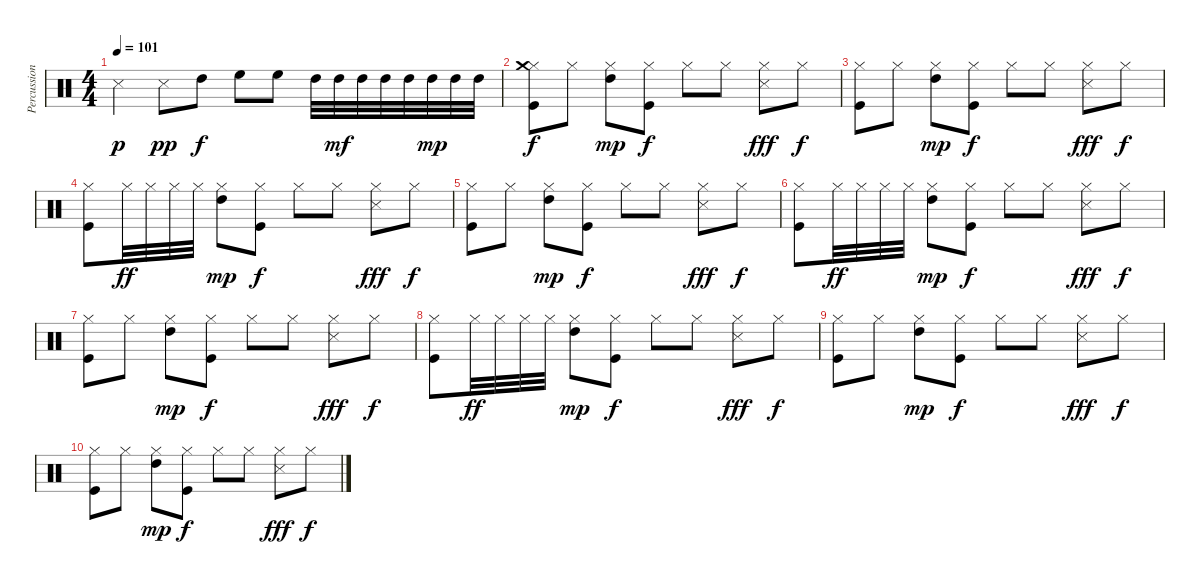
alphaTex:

\track ("Percussion" "Percussion") {instrument percussion}
\staff {score}
\articulation defaults
\ts (4 4)
\tempo 101
\clef neutral
\ks c "Snare (side stick) 3".4{dy p} "Snare (side stick) 3".8{dy pp} "High Tom (hit)".8{dy f} "High Floor Tom (hit)".8 "High Floor Tom (hit)".8 "High Tom (hit)".32 "High Tom (hit)".32{dy mf} "High Tom (hit)".32 "High Tom (hit)".32 "High Tom (hit)".32 "High Tom (hit)".32{dy mp} "High Tom (hit)".32 "High Tom (hit)".32
|
("Hi-Hat (closed)" "Kick (hit)" "Crash medium (hit)").8{dy f} "Hi-Hat (closed)".8 ("Hi-Hat (closed)" "High Tom (hit)").8{dy mp} ("Hi-Hat (closed)" "Kick (hit)").8{dy f} "Hi-Hat (closed)".8 "Hi-Hat (closed)".8 ("Hi-Hat (closed)" "Snare (side stick) 3").8{dy fff} "Hi-Hat (closed)".8{dy f} |
("Hi-Hat (closed)" "Kick (hit)").8 "Hi-Hat (closed)".8 ("Hi-Hat (closed)" "High Tom (hit)").8{dy mp} ("Hi-Hat (closed)" "Kick (hit)").8{dy f} "Hi-Hat (closed)".8 "Hi-Hat (closed)".8 ("Hi-Hat (closed)" "Snare (side stick) 3").8{dy fff} "Hi-Hat (closed)".8{dy f} |
("Hi-Hat (closed)" "Kick (hit)").8 "Hi-Hat (closed)".32{dy ff} "Hi-Hat (closed)".32 "Hi-Hat (closed)".32 "Hi-Hat (closed)".32 ("Hi-Hat (closed)" "High Tom (hit)").8{dy mp} ("Hi-Hat (closed)" "Kick (hit)").8{dy f} "Hi-Hat (closed)".8 "Hi-Hat (closed)".8 ("Hi-Hat (closed)" "Snare (side stick) 3").8{dy fff} "Hi-Hat (closed)".8{dy f} |
("Hi-Hat (closed)" "Kick (hit)").8 "Hi-Hat (closed)".8 ("Hi-Hat (closed)" "High Tom (hit)").8{dy mp} ("Hi-Hat (closed)" "Kick (hit)").8{dy f} "Hi-Hat (closed)".8 "Hi-Hat (closed)".8 ("Hi-Hat (closed)" "Snare (side stick) 3").8{dy fff} "Hi-Hat (closed)".8{dy f} |
("Hi-Hat (closed)" "Kick (hit)").8 "Hi-Hat (closed)".32{dy ff} "Hi-Hat (closed)".32 "Hi-Hat (closed)".32 "Hi-Hat (closed)".32 ("Hi-Hat (closed)" "High Tom (hit)").8{dy mp} ("Hi-Hat (closed)" "Kick (hit)").8{dy f} "Hi-Hat (closed)".8 "Hi-Hat (closed)".8 ("Hi-Hat (closed)" "Snare (side stick) 3").8{dy fff} "Hi-Hat (closed)".8{dy f} |
("Hi-Hat (closed)" "Kick (hit)").8 "Hi-Hat (closed)".8 ("Hi-Hat (closed)" "High Tom (hit)").8{dy mp} ("Hi-Hat (closed)" "Kick (hit)").8{dy f} "Hi-Hat (closed)".8 "Hi-Hat (closed)".8 ("Hi-Hat (closed)" "Snare (side stick) 3").8{dy fff} "Hi-Hat (closed)".8{dy f} |
("Hi-Hat (closed)" "Kick (hit)").8 "Hi-Hat (closed)".32{dy ff} "Hi-Hat (closed)".32 "Hi-Hat (closed)".32 "Hi-Hat (closed)".32 ("Hi-Hat (closed)" "High Tom (hit)").8{dy mp} ("Hi-Hat (closed)" "Kick (hit)").8{dy f} "Hi-Hat (closed)".8 "Hi-Hat (closed)".8 ("Hi-Hat (closed)" "Snare (side stick) 3").8{dy fff} "Hi-Hat (closed)".8{dy f} |
("Hi-Hat (closed)" "Kick (hit)").8 "Hi-Hat (closed)".8 ("Hi-Hat (closed)" "High Tom (hit)").8{dy mp} ("Hi-Hat (closed)" "Kick (hit)").8{dy f} "Hi-Hat (closed)".8 "Hi-Hat (closed)".8 ("Hi-Hat (closed)" "Snare (side stick) 3").8{dy fff} "Hi-Hat (closed)".8{dy f} |
("Hi-Hat (closed)" "Kick (hit)").8 "Hi-Hat (closed)".8 ("Hi-Hat (closed)" "High Tom (hit)").8{dy mp} ("Hi-Hat (closed)" "Kick (hit)").8{dy f} "Hi-Hat (closed)".8 "Hi-Hat (closed)".8 ("Hi-Hat (closed)" "Snare (side stick) 3").8{dy fff} "Hi-Hat (closed)".8{dy f}
